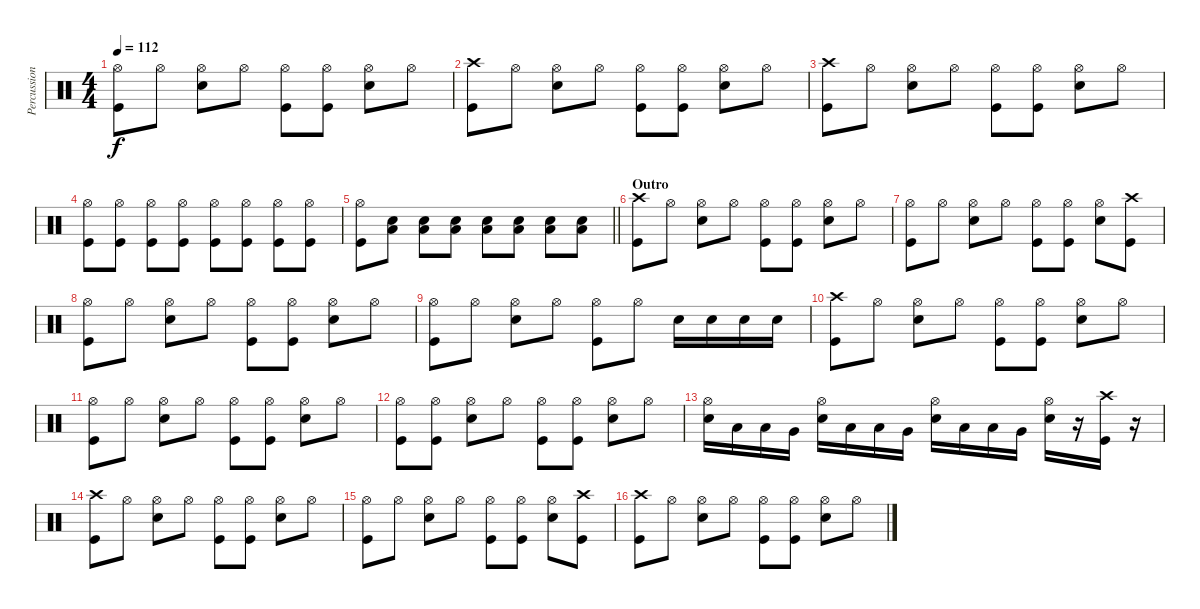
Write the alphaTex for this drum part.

\track ("Percussions" "Percussion") {instrument percussion}
\staff {score}
\articulation defaults
\ts (4 4)
\tempo 112
\clef neutral
\ks c
("Hi-Hat (open)" "Kick (hit)").8{dy f} "Hi-Hat (open)".8 ("Hi-Hat (open)" "Snare (hit) 2").8 "Hi-Hat (open)".8 ("Hi-Hat (open)" "Kick (hit)").8 ("Hi-Hat (open)" "Kick (hit)").8 ("Hi-Hat (open)" "Snare (hit) 2").8 "Hi-Hat (open)".8 |
("Crash high (hit)" "Kick (hit)").8 "Hi-Hat (open)".8 ("Hi-Hat (open)" "Snare (hit) 2").8 "Hi-Hat (open)".8 ("Hi-Hat (open)" "Kick (hit)").8 ("Hi-Hat (open)" "Kick (hit)").8 ("Hi-Hat (open)" "Snare (hit) 2").8 "Hi-Hat (open)".8 |
("Crash high (hit)" "Kick (hit)").8 "Hi-Hat (open)".8 ("Hi-Hat (open)" "Snare (hit) 2").8 "Hi-Hat (open)".8 ("Hi-Hat (open)" "Kick (hit)").8 ("Hi-Hat (open)" "Kick (hit)").8 ("Hi-Hat (open)" "Snare (hit) 2").8 "Hi-Hat (open)".8 |
("Hi-Hat (open)" "Kick (hit)").8 ("Hi-Hat (open)" "Kick (hit)").8 ("Hi-Hat (open)" "Kick (hit)").8 ("Hi-Hat (open)" "Kick (hit)").8 ("Hi-Hat (open)" "Kick (hit)").8 ("Hi-Hat (open)" "Kick (hit)").8 ("Hi-Hat (open)" "Kick (hit)").8 ("Hi-Hat (open)" "Kick (hit)").8 |
\barLineRight lightlight
("Hi-Hat (open)" "Kick (hit)").8 ("Snare (hit) 2" "Low Tom (hit)").8 ("Snare (hit) 2" "Low Tom (hit)").8 ("Snare (hit) 2" "Low Tom (hit)").8 ("Snare (hit) 2" "Low Tom (hit)").8 ("Snare (hit) 2" "Low Tom (hit)").8 ("Snare (hit) 2" "Low Tom (hit)").8 ("Snare (hit) 2" "Low Tom (hit)").8 |
\section ("" "Outro")
("Crash high (hit)" "Kick (hit)").8 "Hi-Hat (open)".8 ("Hi-Hat (open)" "Snare (hit) 2").8 "Hi-Hat (open)".8 ("Hi-Hat (open)" "Kick (hit)").8 ("Hi-Hat (open)" "Kick (hit)").8 ("Hi-Hat (open)" "Snare (hit) 2").8 "Hi-Hat (open)".8 |
("Hi-Hat (open)" "Kick (hit)").8 "Hi-Hat (open)".8 ("Hi-Hat (open)" "Snare (hit) 2").8 "Hi-Hat (open)".8 ("Hi-Hat (open)" "Kick (hit)").8 ("Hi-Hat (open)" "Kick (hit)").8 ("Hi-Hat (open)" "Snare (hit) 2").8 ("Crash high (hit)" "Kick (hit)").8 |
("Hi-Hat (open)" "Kick (hit)").8 "Hi-Hat (open)".8 ("Hi-Hat (open)" "Snare (hit) 2").8 "Hi-Hat (open)".8 ("Hi-Hat (open)" "Kick (hit)").8 ("Hi-Hat (open)" "Kick (hit)").8 ("Hi-Hat (open)" "Snare (hit) 2").8 "Hi-Hat (open)".8 |
("Hi-Hat (open)" "Kick (hit)").8 "Hi-Hat (open)".8 ("Hi-Hat (open)" "Snare (hit) 2").8 "Hi-Hat (open)".8 ("Hi-Hat (open)" "Kick (hit)").8 "Hi-Hat (open)".8 "Snare (hit) 2".16 "Snare (hit) 2".16 "Snare (hit) 2".16 "Snare (hit) 2".16 |
("Crash high (hit)" "Kick (hit)").8 "Hi-Hat (open)".8 ("Hi-Hat (open)" "Snare (hit) 2").8 "Hi-Hat (open)".8 ("Hi-Hat (open)" "Kick (hit)").8 ("Hi-Hat (open)" "Kick (hit)").8 ("Hi-Hat (open)" "Snare (hit) 2").8 "Hi-Hat (open)".8 |
("Hi-Hat (open)" "Kick (hit)").8 "Hi-Hat (open)".8 ("Hi-Hat (open)" "Snare (hit) 2").8 "Hi-Hat (open)".8 ("Hi-Hat (open)" "Kick (hit)").8 ("Hi-Hat (open)" "Kick (hit)").8 ("Hi-Hat (open)" "Snare (hit) 2").8 "Hi-Hat (open)".8 |
("Hi-Hat (open)" "Kick (hit)").8 ("Hi-Hat (open)" "Kick (hit)").8 ("Hi-Hat (open)" "Snare (hit) 2").8 "Hi-Hat (open)".8 ("Hi-Hat (open)" "Kick (hit)").8 ("Hi-Hat (open)" "Kick (hit)").8 ("Hi-Hat (open)" "Snare (hit) 2").8 "Hi-Hat (open)".8 |
("Hi-Hat (open)" "Snare (hit) 2").16 "Low Tom (hit)".16 "Low Tom (hit)".16 "Very Low Tom (hit)".16 ("Hi-Hat (open)" "Snare (hit) 2").16 "Low Tom (hit)".16 "Low Tom (hit)".16 "Very Low Tom (hit)".16 ("Hi-Hat (open)" "Snare (hit) 2").16 "Low Tom (hit)".16 "Low Tom (hit)".16 "Very Low Tom (hit)".16 ("Hi-Hat (open)" "Snare (hit) 2").16 r.16 ("Crash high (hit)" "Kick (hit)").16 r.16 |
("Crash high (hit)" "Kick (hit)").8 "Hi-Hat (open)".8 ("Hi-Hat (open)" "Snare (hit) 2").8 "Hi-Hat (open)".8 ("Hi-Hat (open)" "Kick (hit)").8 ("Hi-Hat (open)" "Kick (hit)").8 ("Hi-Hat (open)" "Snare (hit) 2").8 "Hi-Hat (open)".8 |
("Hi-Hat (open)" "Kick (hit)").8 "Hi-Hat (open)".8 ("Hi-Hat (open)" "Snare (hit) 2").8 "Hi-Hat (open)".8 ("Hi-Hat (open)" "Kick (hit)").8 ("Hi-Hat (open)" "Kick (hit)").8 ("Hi-Hat (open)" "Snare (hit) 2").8 ("Crash high (hit)" "Kick (hit)").8 |
("Crash high (hit)" "Kick (hit)").8 "Hi-Hat (open)".8 ("Hi-Hat (open)" "Snare (hit) 2").8 "Hi-Hat (open)".8 ("Hi-Hat (open)" "Kick (hit)").8 ("Hi-Hat (open)" "Kick (hit)").8 ("Hi-Hat (open)" "Snare (hit) 2").8 "Hi-Hat (open)".8
